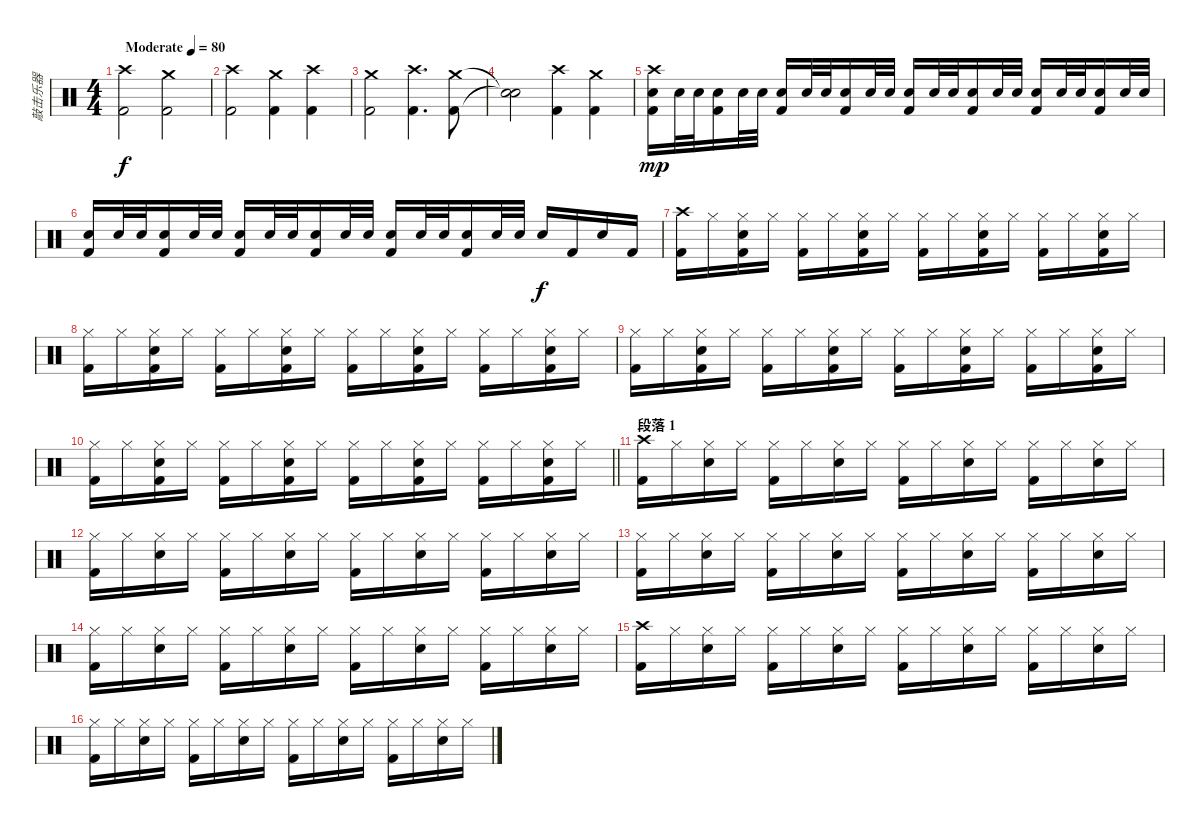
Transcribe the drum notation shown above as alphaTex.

\track ("敲击乐器" "敲击乐器") {instrument percussion}
\staff {score}
\articulation defaults
\ts (4 4)
\tempo (80 "Moderate")
\clef neutral
\ks c
("Crash high (hit)" "Kick (hit) 2").2{dy f} ("Crash medium (hit)" "Kick (hit) 2").2 |
("Crash high (hit)" "Kick (hit) 2").2 ("Crash medium (hit)" "Kick (hit) 2").4 ("Crash high (hit)" "Kick (hit) 2").4 |
("Crash medium (hit)" "Kick (hit) 2").2 ("Crash high (hit)" "Kick (hit) 2").4{d} ("Crash medium (hit)" "Kick (hit) 2").8 |
("Snare (hit)"{t} "Snare (hit)"{t}).2 ("Crash high (hit)" "Kick (hit) 2").4 ("Crash medium (hit)" "Kick (hit) 2").4 |
("Crash high (hit)" "Electric Snare (hit)" "Kick (hit) 2").16{dy mp} "Electric Snare (hit)".32 "Electric Snare (hit)".32 ("Electric Snare (hit)" "Kick (hit) 2").16 "Electric Snare (hit)".32 "Electric Snare (hit)".32 ("Electric Snare (hit)" "Kick (hit) 2").16 "Electric Snare (hit)".32 "Electric Snare (hit)".32 ("Electric Snare (hit)" "Kick (hit) 2").16 "Electric Snare (hit)".32 "Electric Snare (hit)".32 ("Electric Snare (hit)" "Kick (hit) 2").16 "Electric Snare (hit)".32 "Electric Snare (hit)".32 ("Electric Snare (hit)" "Kick (hit) 2").16 "Electric Snare (hit)".32 "Electric Snare (hit)".32 ("Electric Snare (hit)" "Kick (hit) 2").16 "Electric Snare (hit)".32 "Electric Snare (hit)".32 ("Electric Snare (hit)" "Kick (hit) 2").16 "Electric Snare (hit)".32 "Electric Snare (hit)".32 |
("Electric Snare (hit)" "Kick (hit) 2").16 "Electric Snare (hit)".32 "Electric Snare (hit)".32 ("Electric Snare (hit)" "Kick (hit) 2").16 "Electric Snare (hit)".32 "Electric Snare (hit)".32 ("Electric Snare (hit)" "Kick (hit) 2").16 "Electric Snare (hit)".32 "Electric Snare (hit)".32 ("Electric Snare (hit)" "Kick (hit) 2").16 "Electric Snare (hit)".32 "Electric Snare (hit)".32 ("Electric Snare (hit)" "Kick (hit) 2").16 "Electric Snare (hit)".32 "Electric Snare (hit)".32 ("Electric Snare (hit)" "Kick (hit) 2").16 "Electric Snare (hit)".32 "Electric Snare (hit)".32 "Electric Snare (hit)".16{dy f} "Kick (hit) 2".16 "Electric Snare (hit)".16 "Kick (hit) 2".16 |
("Crash high (hit)" "Kick (hit) 2").16 "Hi-Hat (closed)".16 ("Hi-Hat (closed)" "Electric Snare (hit)" "Kick (hit) 2").16 "Hi-Hat (closed)".16 ("Hi-Hat (closed)" "Kick (hit) 2").16 "Hi-Hat (closed)".16 ("Hi-Hat (closed)" "Electric Snare (hit)" "Kick (hit) 2").16 "Hi-Hat (closed)".16 ("Hi-Hat (closed)" "Kick (hit) 2").16 "Hi-Hat (closed)".16 ("Hi-Hat (closed)" "Electric Snare (hit)" "Kick (hit) 2").16 "Hi-Hat (closed)".16 ("Hi-Hat (closed)" "Kick (hit) 2").16 "Hi-Hat (closed)".16 ("Hi-Hat (closed)" "Electric Snare (hit)" "Kick (hit) 2").16 "Hi-Hat (closed)".16 |
("Hi-Hat (closed)" "Kick (hit) 2").16 "Hi-Hat (closed)".16 ("Hi-Hat (closed)" "Electric Snare (hit)" "Kick (hit) 2").16 "Hi-Hat (closed)".16 ("Hi-Hat (closed)" "Kick (hit) 2").16 "Hi-Hat (closed)".16 ("Hi-Hat (closed)" "Electric Snare (hit)" "Kick (hit) 2").16 "Hi-Hat (closed)".16 ("Hi-Hat (closed)" "Kick (hit) 2").16 "Hi-Hat (closed)".16 ("Hi-Hat (closed)" "Electric Snare (hit)" "Kick (hit) 2").16 "Hi-Hat (closed)".16 ("Hi-Hat (closed)" "Kick (hit) 2").16 "Hi-Hat (closed)".16 ("Hi-Hat (closed)" "Electric Snare (hit)" "Kick (hit) 2").16 "Hi-Hat (closed)".16 |
("Hi-Hat (closed)" "Kick (hit) 2").16 "Hi-Hat (closed)".16 ("Hi-Hat (closed)" "Electric Snare (hit)" "Kick (hit) 2").16 "Hi-Hat (closed)".16 ("Hi-Hat (closed)" "Kick (hit) 2").16 "Hi-Hat (closed)".16 ("Hi-Hat (closed)" "Electric Snare (hit)" "Kick (hit) 2").16 "Hi-Hat (closed)".16 ("Hi-Hat (closed)" "Kick (hit) 2").16 "Hi-Hat (closed)".16 ("Hi-Hat (closed)" "Electric Snare (hit)" "Kick (hit) 2").16 "Hi-Hat (closed)".16 ("Hi-Hat (closed)" "Kick (hit) 2").16 "Hi-Hat (closed)".16 ("Hi-Hat (closed)" "Electric Snare (hit)" "Kick (hit) 2").16 "Hi-Hat (closed)".16 |
\barLineRight lightlight
("Hi-Hat (closed)" "Kick (hit) 2").16 "Hi-Hat (closed)".16 ("Hi-Hat (closed)" "Electric Snare (hit)" "Kick (hit) 2").16 "Hi-Hat (closed)".16 ("Hi-Hat (closed)" "Kick (hit) 2").16 "Hi-Hat (closed)".16 ("Hi-Hat (closed)" "Electric Snare (hit)" "Kick (hit) 2").16 "Hi-Hat (closed)".16 ("Hi-Hat (closed)" "Kick (hit) 2").16 "Hi-Hat (closed)".16 ("Hi-Hat (closed)" "Electric Snare (hit)" "Kick (hit) 2").16 "Hi-Hat (closed)".16 ("Hi-Hat (closed)" "Kick (hit) 2").16 "Hi-Hat (closed)".16 ("Hi-Hat (closed)" "Electric Snare (hit)" "Kick (hit) 2").16 "Hi-Hat (closed)".16 |
\section ("" "段落 1")
("Crash high (hit)" "Kick (hit) 2").16 "Hi-Hat (closed)".16 ("Hi-Hat (closed)" "Electric Snare (hit)").16 "Hi-Hat (closed)".16 ("Hi-Hat (closed)" "Kick (hit) 2").16 "Hi-Hat (closed)".16 ("Hi-Hat (closed)" "Electric Snare (hit)").16 "Hi-Hat (closed)".16 ("Hi-Hat (closed)" "Kick (hit) 2").16 "Hi-Hat (closed)".16 ("Hi-Hat (closed)" "Electric Snare (hit)").16 "Hi-Hat (closed)".16 ("Hi-Hat (closed)" "Kick (hit) 2").16 "Hi-Hat (closed)".16 ("Hi-Hat (closed)" "Electric Snare (hit)").16 "Hi-Hat (closed)".16 |
("Hi-Hat (closed)" "Kick (hit) 2").16 "Hi-Hat (closed)".16 ("Hi-Hat (closed)" "Electric Snare (hit)").16 "Hi-Hat (closed)".16 ("Hi-Hat (closed)" "Kick (hit) 2").16 "Hi-Hat (closed)".16 ("Hi-Hat (closed)" "Electric Snare (hit)").16 "Hi-Hat (closed)".16 ("Hi-Hat (closed)" "Kick (hit) 2").16 "Hi-Hat (closed)".16 ("Hi-Hat (closed)" "Electric Snare (hit)").16 "Hi-Hat (closed)".16 ("Hi-Hat (closed)" "Kick (hit) 2").16 "Hi-Hat (closed)".16 ("Hi-Hat (closed)" "Electric Snare (hit)").16 "Hi-Hat (closed)".16 |
("Hi-Hat (closed)" "Kick (hit) 2").16 "Hi-Hat (closed)".16 ("Hi-Hat (closed)" "Electric Snare (hit)").16 "Hi-Hat (closed)".16 ("Hi-Hat (closed)" "Kick (hit) 2").16 "Hi-Hat (closed)".16 ("Hi-Hat (closed)" "Electric Snare (hit)").16 "Hi-Hat (closed)".16 ("Hi-Hat (closed)" "Kick (hit) 2").16 "Hi-Hat (closed)".16 ("Hi-Hat (closed)" "Electric Snare (hit)").16 "Hi-Hat (closed)".16 ("Hi-Hat (closed)" "Kick (hit) 2").16 "Hi-Hat (closed)".16 ("Hi-Hat (closed)" "Electric Snare (hit)").16 "Hi-Hat (closed)".16 |
("Hi-Hat (closed)" "Kick (hit) 2").16 "Hi-Hat (closed)".16 ("Hi-Hat (closed)" "Electric Snare (hit)").16 "Hi-Hat (closed)".16 ("Hi-Hat (closed)" "Kick (hit) 2").16 "Hi-Hat (closed)".16 ("Hi-Hat (closed)" "Electric Snare (hit)").16 "Hi-Hat (closed)".16 ("Hi-Hat (closed)" "Kick (hit) 2").16 "Hi-Hat (closed)".16 ("Hi-Hat (closed)" "Electric Snare (hit)").16 "Hi-Hat (closed)".16 ("Hi-Hat (closed)" "Kick (hit) 2").16 "Hi-Hat (closed)".16 ("Hi-Hat (closed)" "Electric Snare (hit)").16 "Hi-Hat (closed)".16 |
("Crash high (hit)" "Kick (hit) 2").16 "Hi-Hat (closed)".16 ("Hi-Hat (closed)" "Electric Snare (hit)").16 "Hi-Hat (closed)".16 ("Hi-Hat (closed)" "Kick (hit) 2").16 "Hi-Hat (closed)".16 ("Hi-Hat (closed)" "Electric Snare (hit)").16 "Hi-Hat (closed)".16 ("Hi-Hat (closed)" "Kick (hit) 2").16 "Hi-Hat (closed)".16 ("Hi-Hat (closed)" "Electric Snare (hit)").16 "Hi-Hat (closed)".16 ("Hi-Hat (closed)" "Kick (hit) 2").16 "Hi-Hat (closed)".16 ("Hi-Hat (closed)" "Electric Snare (hit)").16 "Hi-Hat (closed)".16 |
("Hi-Hat (closed)" "Kick (hit) 2").16 "Hi-Hat (closed)".16 ("Hi-Hat (closed)" "Electric Snare (hit)").16 "Hi-Hat (closed)".16 ("Hi-Hat (closed)" "Kick (hit) 2").16 "Hi-Hat (closed)".16 ("Hi-Hat (closed)" "Electric Snare (hit)").16 "Hi-Hat (closed)".16 ("Hi-Hat (closed)" "Kick (hit) 2").16 "Hi-Hat (closed)".16 ("Hi-Hat (closed)" "Electric Snare (hit)").16 "Hi-Hat (closed)".16 ("Hi-Hat (closed)" "Kick (hit) 2").16 "Hi-Hat (closed)".16 ("Hi-Hat (closed)" "Electric Snare (hit)").16 "Hi-Hat (closed)".16
